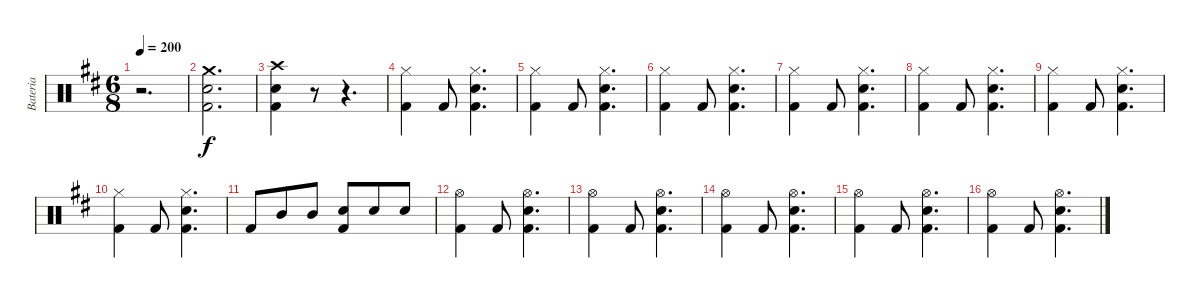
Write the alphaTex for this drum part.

\track ("Bateria" "Bateria") {instrument percussion}
\staff {score}
\articulation defaults
\ts (6 8)
\tempo 200
\clef neutral
\ks bminor
r.2{d dy f} |
("Crash medium (hit)" "Electric Snare (hit)" "Kick (hit) 2").2{d} |
("Crash high (hit)" "Electric Snare (hit)" "Kick (hit) 2").4 r.8 r.4{d} |
("Hi-Hat (closed)" "Kick (hit) 2").4 "Kick (hit) 2".8 ("Hi-Hat (closed)" "Electric Snare (hit)" "Kick (hit) 2").4{d} |
("Hi-Hat (closed)" "Kick (hit) 2").4 "Kick (hit) 2".8 ("Hi-Hat (closed)" "Electric Snare (hit)" "Kick (hit) 2").4{d} |
("Hi-Hat (closed)" "Kick (hit) 2").4 "Kick (hit) 2".8 ("Hi-Hat (closed)" "Electric Snare (hit)" "Kick (hit) 2").4{d} |
("Hi-Hat (closed)" "Kick (hit) 2").4 "Kick (hit) 2".8 ("Hi-Hat (closed)" "Electric Snare (hit)" "Kick (hit) 2").4{d} |
("Hi-Hat (closed)" "Kick (hit) 2").4 "Kick (hit) 2".8 ("Hi-Hat (closed)" "Electric Snare (hit)" "Kick (hit) 2").4{d} |
("Hi-Hat (closed)" "Kick (hit) 2").4 "Kick (hit) 2".8 ("Hi-Hat (closed)" "Electric Snare (hit)" "Kick (hit) 2").4{d} |
("Hi-Hat (closed)" "Kick (hit) 2").4 "Kick (hit) 2".8 ("Hi-Hat (closed)" "Electric Snare (hit)" "Kick (hit) 2").4{d} |
"Kick (hit) 2".8 "Mid Tom (hit)".8 "Mid Tom (hit)".8 ("Electric Snare (hit)" "Kick (hit) 2").8 "Electric Snare (hit)".8 "Electric Snare (hit)".8 |
("Hi-Hat (open)" "Kick (hit) 2").4 "Kick (hit) 2".8 ("Hi-Hat (open)" "Electric Snare (hit)" "Kick (hit) 2").4{d} |
("Hi-Hat (open)" "Kick (hit) 2").4 "Kick (hit) 2".8 ("Hi-Hat (open)" "Electric Snare (hit)" "Kick (hit) 2").4{d} |
("Hi-Hat (open)" "Kick (hit) 2").4 "Kick (hit) 2".8 ("Hi-Hat (open)" "Electric Snare (hit)" "Kick (hit) 2").4{d} |
("Hi-Hat (open)" "Kick (hit) 2").4 "Kick (hit) 2".8 ("Hi-Hat (open)" "Electric Snare (hit)" "Kick (hit) 2").4{d} |
("Hi-Hat (open)" "Kick (hit) 2").4 "Kick (hit) 2".8 ("Hi-Hat (open)" "Electric Snare (hit)" "Kick (hit) 2").4{d}
